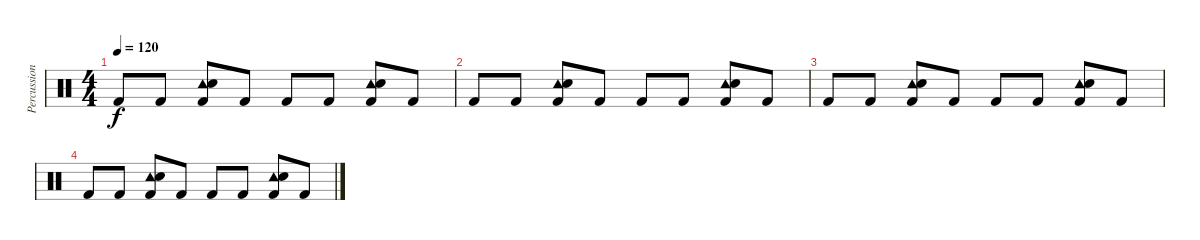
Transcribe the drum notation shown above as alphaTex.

\track ("Percussions" "Percussion") {instrument percussion}
\staff {score}
\articulation defaults
\ts (4 4)
\tempo 120
\clef neutral
\ks c "Kick (hit) 2".8{dy f} "Kick (hit) 2".8
("Kick (hit) 2" "Tambourine (hit)" "Snare (hit) 2").8 "Kick (hit) 2".8 "Kick (hit) 2".8 "Kick (hit) 2".8 ("Kick (hit) 2" "Tambourine (hit)" "Snare (hit) 2").8 "Kick (hit) 2".8 |
"Kick (hit) 2".8 "Kick (hit) 2".8 ("Kick (hit) 2" "Tambourine (hit)" "Snare (hit) 2").8 "Kick (hit) 2".8 "Kick (hit) 2".8 "Kick (hit) 2".8 ("Kick (hit) 2" "Tambourine (hit)" "Snare (hit) 2").8 "Kick (hit) 2".8 |
"Kick (hit) 2".8 "Kick (hit) 2".8 ("Kick (hit) 2" "Tambourine (hit)" "Snare (hit) 2").8 "Kick (hit) 2".8 "Kick (hit) 2".8 "Kick (hit) 2".8 ("Kick (hit) 2" "Tambourine (hit)" "Snare (hit) 2").8 "Kick (hit) 2".8 |
"Kick (hit) 2".8 "Kick (hit) 2".8 ("Kick (hit) 2" "Tambourine (hit)" "Snare (hit) 2").8 "Kick (hit) 2".8 "Kick (hit) 2".8 "Kick (hit) 2".8 ("Kick (hit) 2" "Tambourine (hit)" "Snare (hit) 2").8 "Kick (hit) 2".8
